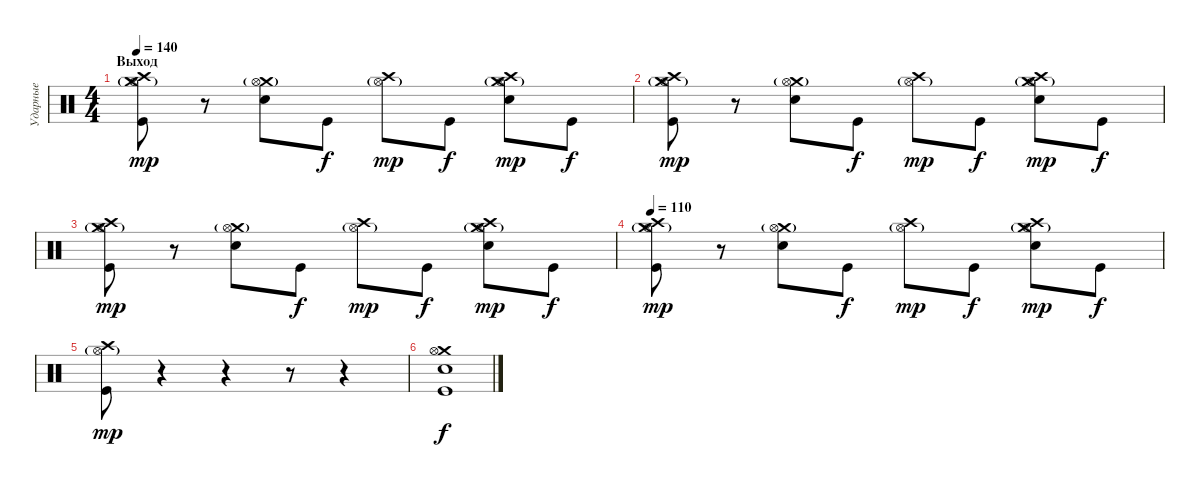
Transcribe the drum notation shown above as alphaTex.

\track ("Ударные" "Ударные") {instrument percussion}
\staff {score}
\articulation defaults
\ts (4 4)
\section ("" "Выход")
\tempo 140
\clef neutral
\ks c
("Crash high (hit)" "Crash medium (hit)" "Hi-Hat (open)"{g} "Kick (hit)").8{dy mp} r.8 ("Crash medium (hit)" "Hi-Hat (open)"{g} "Electric Snare (hit)").8 "Kick (hit)".8{dy f} ("Crash high (hit)" "Hi-Hat (open)"{g}).8{dy mp} "Kick (hit)".8{dy f} ("Crash high (hit)" "Crash medium (hit)" "Hi-Hat (open)"{g} "Electric Snare (hit)").8{dy mp} "Kick (hit)".8{dy f} |
("Crash high (hit)" "Crash medium (hit)" "Hi-Hat (open)"{g} "Kick (hit)").8{dy mp} r.8 ("Crash medium (hit)" "Hi-Hat (open)"{g} "Electric Snare (hit)").8 "Kick (hit)".8{dy f} ("Crash high (hit)" "Hi-Hat (open)"{g}).8{dy mp} "Kick (hit)".8{dy f} ("Crash high (hit)" "Crash medium (hit)" "Hi-Hat (open)"{g} "Electric Snare (hit)").8{dy mp} "Kick (hit)".8{dy f} |
("Crash high (hit)" "Crash medium (hit)" "Hi-Hat (open)"{g} "Kick (hit)").8{dy mp} r.8 ("Crash medium (hit)" "Hi-Hat (open)"{g} "Electric Snare (hit)").8 "Kick (hit)".8{dy f} ("Crash high (hit)" "Hi-Hat (open)"{g}).8{dy mp} "Kick (hit)".8{dy f} ("Crash high (hit)" "Crash medium (hit)" "Hi-Hat (open)"{g} "Electric Snare (hit)").8{dy mp} "Kick (hit)".8{dy f} |
\tempo 110
("Crash high (hit)" "Crash medium (hit)" "Hi-Hat (open)"{g} "Kick (hit)").8{dy mp} r.8 ("Crash medium (hit)" "Hi-Hat (open)"{g} "Electric Snare (hit)").8 "Kick (hit)".8{dy f} ("Crash high (hit)" "Hi-Hat (open)"{g}).8{dy mp} "Kick (hit)".8{dy f} ("Crash high (hit)" "Crash medium (hit)" "Hi-Hat (open)"{g} "Electric Snare (hit)").8{dy mp} "Kick (hit)".8{dy f} |
("Crash high (hit)" "Hi-Hat (open)"{g} "Kick (hit)").8{dy mp} r.4 r.4 r.8 r.4 |
("Kick (hit)" "Crash medium (hit)" "Hi-Hat (open)" "Electric Snare (hit)").1{dy f}
